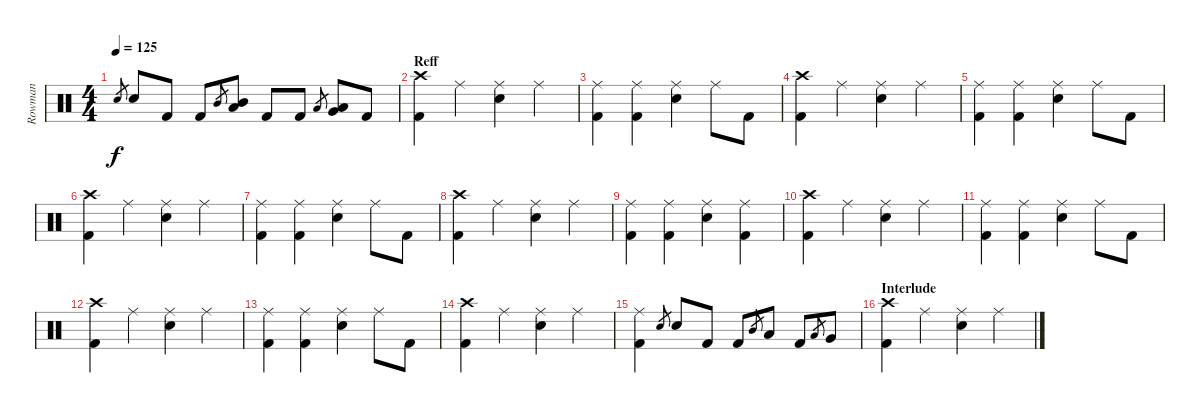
\track ("Rowman" "Rowman") {instrument percussion}
\staff {score}
\articulation defaults
\ts (4 4)
\tempo 125
\clef neutral
\ks c "Electric Snare (hit)".8{gr dy f} "Electric Snare (hit)".8 "Kick (hit) 2".8 "Kick (hit) 2".8 "Mid Tom (hit)".8{gr}
("Low Tom (hit)" "Mid Tom (hit)").8 "Kick (hit) 2".8 "Kick (hit) 2".8 "Low Tom (hit)".8{gr} ("Very Low Tom (hit)" "Low Tom (hit)").8 "Kick (hit) 2".8 |
\section ("" "Reff")
("Kick (hit) 2" "Crash high (hit)").4 "Ride (middle)".4 ("Electric Snare (hit)" "Ride (middle)").4 "Ride (middle)".4 |
("Kick (hit) 2" "Ride (middle)").4 ("Kick (hit) 2" "Ride (middle)").4 ("Electric Snare (hit)" "Ride (middle)").4 "Ride (middle)".8 "Kick (hit) 2".8 |
("Kick (hit) 2" "Crash high (hit)").4 "Ride (middle)".4 ("Electric Snare (hit)" "Ride (middle)").4 "Ride (middle)".4 |
("Kick (hit) 2" "Ride (middle)").4 ("Kick (hit) 2" "Ride (middle)").4 ("Electric Snare (hit)" "Ride (middle)").4 "Ride (middle)".8 "Kick (hit) 2".8 |
("Kick (hit) 2" "Crash high (hit)").4 "Ride (middle)".4 ("Electric Snare (hit)" "Ride (middle)").4 "Ride (middle)".4 |
("Kick (hit) 2" "Ride (middle)").4 ("Kick (hit) 2" "Ride (middle)").4 ("Electric Snare (hit)" "Ride (middle)").4 "Ride (middle)".8 "Kick (hit) 2".8 |
("Kick (hit) 2" "Crash high (hit)").4 "Ride (middle)".4 ("Electric Snare (hit)" "Ride (middle)").4 "Ride (middle)".4 |
("Kick (hit) 2" "Ride (middle)").4 ("Kick (hit) 2" "Ride (middle)").4 ("Electric Snare (hit)" "Ride (middle)").4 ("Kick (hit) 2" "Ride (middle)").4 |
("Kick (hit) 2" "Crash high (hit)").4 "Ride (middle)".4 ("Electric Snare (hit)" "Ride (middle)").4 "Ride (middle)".4 |
("Kick (hit) 2" "Ride (middle)").4 ("Kick (hit) 2" "Ride (middle)").4 ("Electric Snare (hit)" "Ride (middle)").4 "Ride (middle)".8 "Kick (hit) 2".8 |
("Kick (hit) 2" "Crash high (hit)").4 "Ride (middle)".4 ("Electric Snare (hit)" "Ride (middle)").4 "Ride (middle)".4 |
("Kick (hit) 2" "Ride (middle)").4 ("Kick (hit) 2" "Ride (middle)").4 ("Electric Snare (hit)" "Ride (middle)").4 "Ride (middle)".8 "Kick (hit) 2".8 |
("Kick (hit) 2" "Crash high (hit)").4 "Ride (middle)".4 ("Electric Snare (hit)" "Ride (middle)").4 "Ride (middle)".4 |
("Kick (hit) 2" "Ride (middle)").4 "Electric Snare (hit)".8{gr} "Electric Snare (hit)".8 "Kick (hit) 2".8 "Kick (hit) 2".8 "Mid Tom (hit)".8{gr} "Low Tom (hit)".8 "Kick (hit) 2".8 "Low Tom (hit)".8{gr} "Very Low Tom (hit)".8 |
\section ("" "Interlude")
("Kick (hit) 2" "Crash high (hit)").4 "Ride (middle)".4 ("Electric Snare (hit)" "Ride (middle)").4 "Ride (middle)".4
